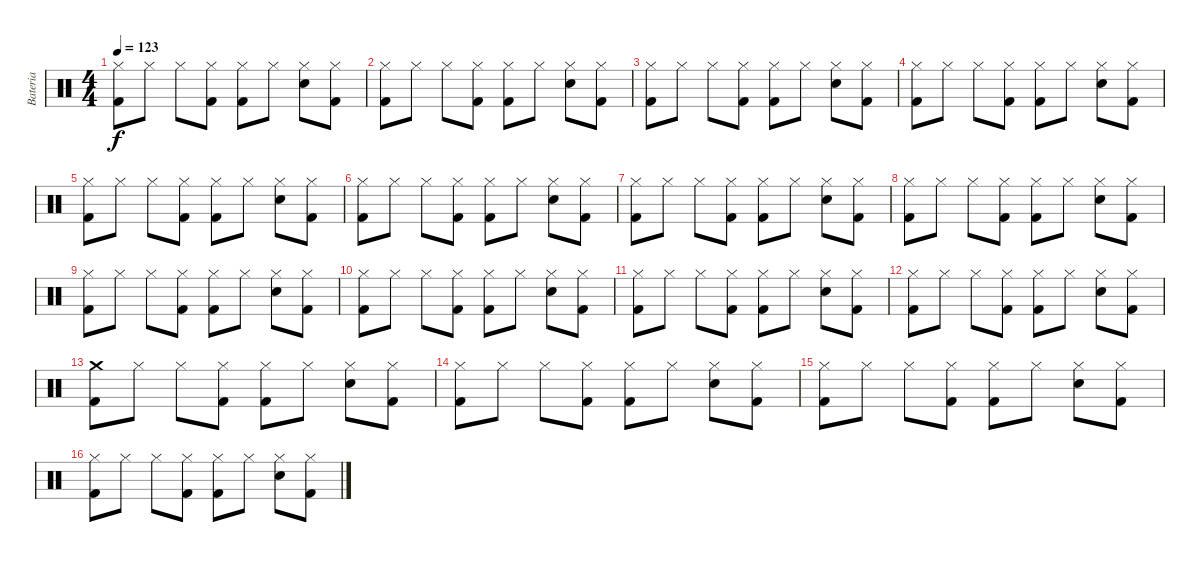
\track ("Bateria" "Bateria") {instrument percussion}
\staff {score}
\articulation defaults
\ts (4 4)
\tempo 123
\clef neutral
\ks c
("Hi-Hat (closed)" "Kick (hit) 2").8{dy f} "Hi-Hat (closed)".8 "Hi-Hat (closed)".8 ("Hi-Hat (closed)" "Kick (hit) 2").8 ("Hi-Hat (closed)" "Kick (hit) 2").8 "Hi-Hat (closed)".8 ("Hi-Hat (closed)" "Snare (hit) 2").8 ("Hi-Hat (closed)" "Kick (hit) 2").8 |
("Hi-Hat (closed)" "Kick (hit) 2").8 "Hi-Hat (closed)".8 "Hi-Hat (closed)".8 ("Hi-Hat (closed)" "Kick (hit) 2").8 ("Hi-Hat (closed)" "Kick (hit) 2").8 "Hi-Hat (closed)".8 ("Hi-Hat (closed)" "Snare (hit) 2").8 ("Hi-Hat (closed)" "Kick (hit) 2").8 |
("Hi-Hat (closed)" "Kick (hit) 2").8 "Hi-Hat (closed)".8 "Hi-Hat (closed)".8 ("Hi-Hat (closed)" "Kick (hit) 2").8 ("Hi-Hat (closed)" "Kick (hit) 2").8 "Hi-Hat (closed)".8 ("Hi-Hat (closed)" "Snare (hit) 2").8 ("Hi-Hat (closed)" "Kick (hit) 2").8 |
("Hi-Hat (closed)" "Kick (hit) 2").8 "Hi-Hat (closed)".8 "Hi-Hat (closed)".8 ("Hi-Hat (closed)" "Kick (hit) 2").8 ("Hi-Hat (closed)" "Kick (hit) 2").8 "Hi-Hat (closed)".8 ("Hi-Hat (closed)" "Snare (hit) 2").8 ("Hi-Hat (closed)" "Kick (hit) 2").8 |
("Hi-Hat (closed)" "Kick (hit) 2").8 "Hi-Hat (closed)".8 "Hi-Hat (closed)".8 ("Hi-Hat (closed)" "Kick (hit) 2").8 ("Hi-Hat (closed)" "Kick (hit) 2").8 "Hi-Hat (closed)".8 ("Hi-Hat (closed)" "Snare (hit) 2").8 ("Hi-Hat (closed)" "Kick (hit) 2").8 |
("Hi-Hat (closed)" "Kick (hit) 2").8 "Hi-Hat (closed)".8 "Hi-Hat (closed)".8 ("Hi-Hat (closed)" "Kick (hit) 2").8 ("Hi-Hat (closed)" "Kick (hit) 2").8 "Hi-Hat (closed)".8 ("Hi-Hat (closed)" "Snare (hit) 2").8 ("Hi-Hat (closed)" "Kick (hit) 2").8 |
("Hi-Hat (closed)" "Kick (hit) 2").8 "Hi-Hat (closed)".8 "Hi-Hat (closed)".8 ("Hi-Hat (closed)" "Kick (hit) 2").8 ("Hi-Hat (closed)" "Kick (hit) 2").8 "Hi-Hat (closed)".8 ("Hi-Hat (closed)" "Snare (hit) 2").8 ("Hi-Hat (closed)" "Kick (hit) 2").8 |
("Hi-Hat (closed)" "Kick (hit) 2").8 "Hi-Hat (closed)".8 "Hi-Hat (closed)".8 ("Hi-Hat (closed)" "Kick (hit) 2").8 ("Hi-Hat (closed)" "Kick (hit) 2").8 "Hi-Hat (closed)".8 ("Hi-Hat (closed)" "Snare (hit) 2").8 ("Hi-Hat (closed)" "Kick (hit) 2").8 |
("Hi-Hat (closed)" "Kick (hit) 2").8 "Hi-Hat (closed)".8 "Hi-Hat (closed)".8 ("Hi-Hat (closed)" "Kick (hit) 2").8 ("Hi-Hat (closed)" "Kick (hit) 2").8 "Hi-Hat (closed)".8 ("Hi-Hat (closed)" "Snare (hit) 2").8 ("Hi-Hat (closed)" "Kick (hit) 2").8 |
("Hi-Hat (closed)" "Kick (hit) 2").8 "Hi-Hat (closed)".8 "Hi-Hat (closed)".8 ("Hi-Hat (closed)" "Kick (hit) 2").8 ("Hi-Hat (closed)" "Kick (hit) 2").8 "Hi-Hat (closed)".8 ("Hi-Hat (closed)" "Snare (hit) 2").8 ("Hi-Hat (closed)" "Kick (hit) 2").8 |
("Hi-Hat (closed)" "Kick (hit) 2").8 "Hi-Hat (closed)".8 "Hi-Hat (closed)".8 ("Hi-Hat (closed)" "Kick (hit) 2").8 ("Hi-Hat (closed)" "Kick (hit) 2").8 "Hi-Hat (closed)".8 ("Hi-Hat (closed)" "Snare (hit) 2").8 ("Hi-Hat (closed)" "Kick (hit) 2").8 |
("Hi-Hat (closed)" "Kick (hit) 2").8 "Hi-Hat (closed)".8 "Hi-Hat (closed)".8 ("Hi-Hat (closed)" "Kick (hit) 2").8 ("Hi-Hat (closed)" "Kick (hit) 2").8 "Hi-Hat (closed)".8 ("Hi-Hat (closed)" "Snare (hit) 2").8 ("Hi-Hat (closed)" "Kick (hit) 2").8 |
("Crash medium (hit)" "Kick (hit) 2").8 "Hi-Hat (closed)".8 "Hi-Hat (closed)".8 ("Hi-Hat (closed)" "Kick (hit) 2").8 ("Hi-Hat (closed)" "Kick (hit) 2").8 "Hi-Hat (closed)".8 ("Hi-Hat (closed)" "Snare (hit) 2").8 ("Hi-Hat (closed)" "Kick (hit) 2").8 |
("Hi-Hat (closed)" "Kick (hit) 2").8 "Hi-Hat (closed)".8 "Hi-Hat (closed)".8 ("Hi-Hat (closed)" "Kick (hit) 2").8 ("Hi-Hat (closed)" "Kick (hit) 2").8 "Hi-Hat (closed)".8 ("Hi-Hat (closed)" "Snare (hit) 2").8 ("Hi-Hat (closed)" "Kick (hit) 2").8 |
("Hi-Hat (closed)" "Kick (hit) 2").8 "Hi-Hat (closed)".8 "Hi-Hat (closed)".8 ("Hi-Hat (closed)" "Kick (hit) 2").8 ("Hi-Hat (closed)" "Kick (hit) 2").8 "Hi-Hat (closed)".8 ("Hi-Hat (closed)" "Snare (hit) 2").8 ("Hi-Hat (closed)" "Kick (hit) 2").8 |
("Hi-Hat (closed)" "Kick (hit) 2").8 "Hi-Hat (closed)".8 "Hi-Hat (closed)".8 ("Hi-Hat (closed)" "Kick (hit) 2").8 ("Hi-Hat (closed)" "Kick (hit) 2").8 "Hi-Hat (closed)".8 ("Hi-Hat (closed)" "Snare (hit) 2").8 ("Hi-Hat (closed)" "Kick (hit) 2").8
